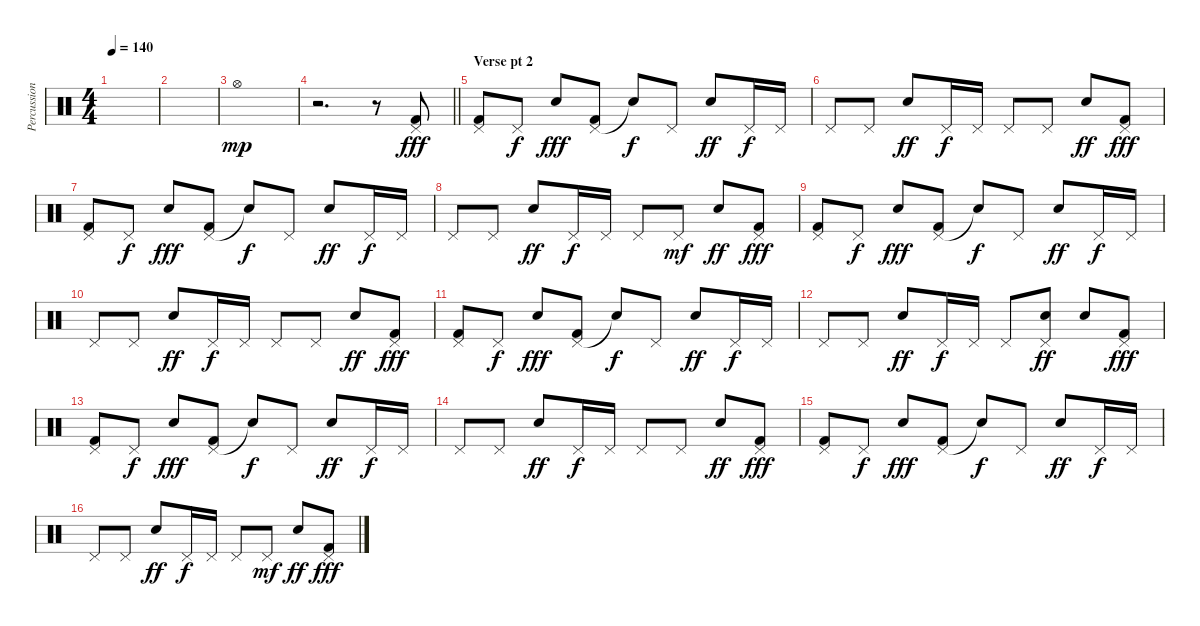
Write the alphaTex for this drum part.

\track ("Percussion" "Percussion") {instrument percussion}
\staff {score}
\articulation defaults
\ts (4 4)
\tempo 140
\clef neutral
\ks c
|
|
"Hi-Hat (open)".1{dy mp} |
\barLineRight lightlight
r.2{d} r.8 ("Pedal Hi-Hat (hit)" "Kick (hit) 2").8{dy fff} |
\section ("" "Verse pt 2")
("Pedal Hi-Hat (hit)" "Kick (hit) 2").8 "Pedal Hi-Hat (hit)".8{dy f} "Electric Snare (hit)".8{dy fff} ("Pedal Hi-Hat (hit)" "Kick (hit) 2").8 "Snare (hit)"{t}.8{dy f} "Pedal Hi-Hat (hit)".8 "Electric Snare (hit)".8{dy ff} "Pedal Hi-Hat (hit)".16{dy f} "Pedal Hi-Hat (hit)".16 |
"Pedal Hi-Hat (hit)".8 "Pedal Hi-Hat (hit)".8 "Electric Snare (hit)".8{dy ff} "Pedal Hi-Hat (hit)".16{dy f} "Pedal Hi-Hat (hit)".16 "Pedal Hi-Hat (hit)".8 "Pedal Hi-Hat (hit)".8 "Electric Snare (hit)".8{dy ff} ("Pedal Hi-Hat (hit)" "Kick (hit) 2").8{dy fff} |
("Pedal Hi-Hat (hit)" "Kick (hit) 2").8 "Pedal Hi-Hat (hit)".8{dy f} "Electric Snare (hit)".8{dy fff} ("Pedal Hi-Hat (hit)" "Kick (hit) 2").8 "Snare (hit)"{t}.8{dy f} "Pedal Hi-Hat (hit)".8 "Electric Snare (hit)".8{dy ff} "Pedal Hi-Hat (hit)".16{dy f} "Pedal Hi-Hat (hit)".16 |
"Pedal Hi-Hat (hit)".8 "Pedal Hi-Hat (hit)".8 "Electric Snare (hit)".8{dy ff} "Pedal Hi-Hat (hit)".16{dy f} "Pedal Hi-Hat (hit)".16 "Pedal Hi-Hat (hit)".8 "Pedal Hi-Hat (hit)".8{dy mf} "Electric Snare (hit)".8{dy ff} ("Pedal Hi-Hat (hit)" "Kick (hit) 2").8{dy fff} |
("Pedal Hi-Hat (hit)" "Kick (hit) 2").8 "Pedal Hi-Hat (hit)".8{dy f} "Electric Snare (hit)".8{dy fff} ("Pedal Hi-Hat (hit)" "Kick (hit) 2").8 "Snare (hit)"{t}.8{dy f} "Pedal Hi-Hat (hit)".8 "Electric Snare (hit)".8{dy ff} "Pedal Hi-Hat (hit)".16{dy f} "Pedal Hi-Hat (hit)".16 |
"Pedal Hi-Hat (hit)".8 "Pedal Hi-Hat (hit)".8 "Electric Snare (hit)".8{dy ff} "Pedal Hi-Hat (hit)".16{dy f} "Pedal Hi-Hat (hit)".16 "Pedal Hi-Hat (hit)".8 "Pedal Hi-Hat (hit)".8 "Electric Snare (hit)".8{dy ff} ("Pedal Hi-Hat (hit)" "Kick (hit) 2").8{dy fff} |
("Pedal Hi-Hat (hit)" "Kick (hit) 2").8 "Pedal Hi-Hat (hit)".8{dy f} "Electric Snare (hit)".8{dy fff} ("Pedal Hi-Hat (hit)" "Kick (hit) 2").8 "Snare (hit)"{t}.8{dy f} "Pedal Hi-Hat (hit)".8 "Electric Snare (hit)".8{dy ff} "Pedal Hi-Hat (hit)".16{dy f} "Pedal Hi-Hat (hit)".16 |
"Pedal Hi-Hat (hit)".8 "Pedal Hi-Hat (hit)".8 "Electric Snare (hit)".8{dy ff} "Pedal Hi-Hat (hit)".16{dy f} "Pedal Hi-Hat (hit)".16 "Pedal Hi-Hat (hit)".8 ("Pedal Hi-Hat (hit)" "Electric Snare (hit)").8{dy ff} "Electric Snare (hit)".8 ("Pedal Hi-Hat (hit)" "Kick (hit) 2").8{dy fff} |
("Pedal Hi-Hat (hit)" "Kick (hit) 2").8 "Pedal Hi-Hat (hit)".8{dy f} "Electric Snare (hit)".8{dy fff} ("Pedal Hi-Hat (hit)" "Kick (hit) 2").8 "Snare (hit)"{t}.8{dy f} "Pedal Hi-Hat (hit)".8 "Electric Snare (hit)".8{dy ff} "Pedal Hi-Hat (hit)".16{dy f} "Pedal Hi-Hat (hit)".16 |
"Pedal Hi-Hat (hit)".8 "Pedal Hi-Hat (hit)".8 "Electric Snare (hit)".8{dy ff} "Pedal Hi-Hat (hit)".16{dy f} "Pedal Hi-Hat (hit)".16 "Pedal Hi-Hat (hit)".8 "Pedal Hi-Hat (hit)".8 "Electric Snare (hit)".8{dy ff} ("Pedal Hi-Hat (hit)" "Kick (hit) 2").8{dy fff} |
("Pedal Hi-Hat (hit)" "Kick (hit) 2").8 "Pedal Hi-Hat (hit)".8{dy f} "Electric Snare (hit)".8{dy fff} ("Pedal Hi-Hat (hit)" "Kick (hit) 2").8 "Snare (hit)"{t}.8{dy f} "Pedal Hi-Hat (hit)".8 "Electric Snare (hit)".8{dy ff} "Pedal Hi-Hat (hit)".16{dy f} "Pedal Hi-Hat (hit)".16 |
"Pedal Hi-Hat (hit)".8 "Pedal Hi-Hat (hit)".8 "Electric Snare (hit)".8{dy ff} "Pedal Hi-Hat (hit)".16{dy f} "Pedal Hi-Hat (hit)".16 "Pedal Hi-Hat (hit)".8 "Pedal Hi-Hat (hit)".8{dy mf} "Electric Snare (hit)".8{dy ff} ("Pedal Hi-Hat (hit)" "Kick (hit) 2").8{dy fff}
